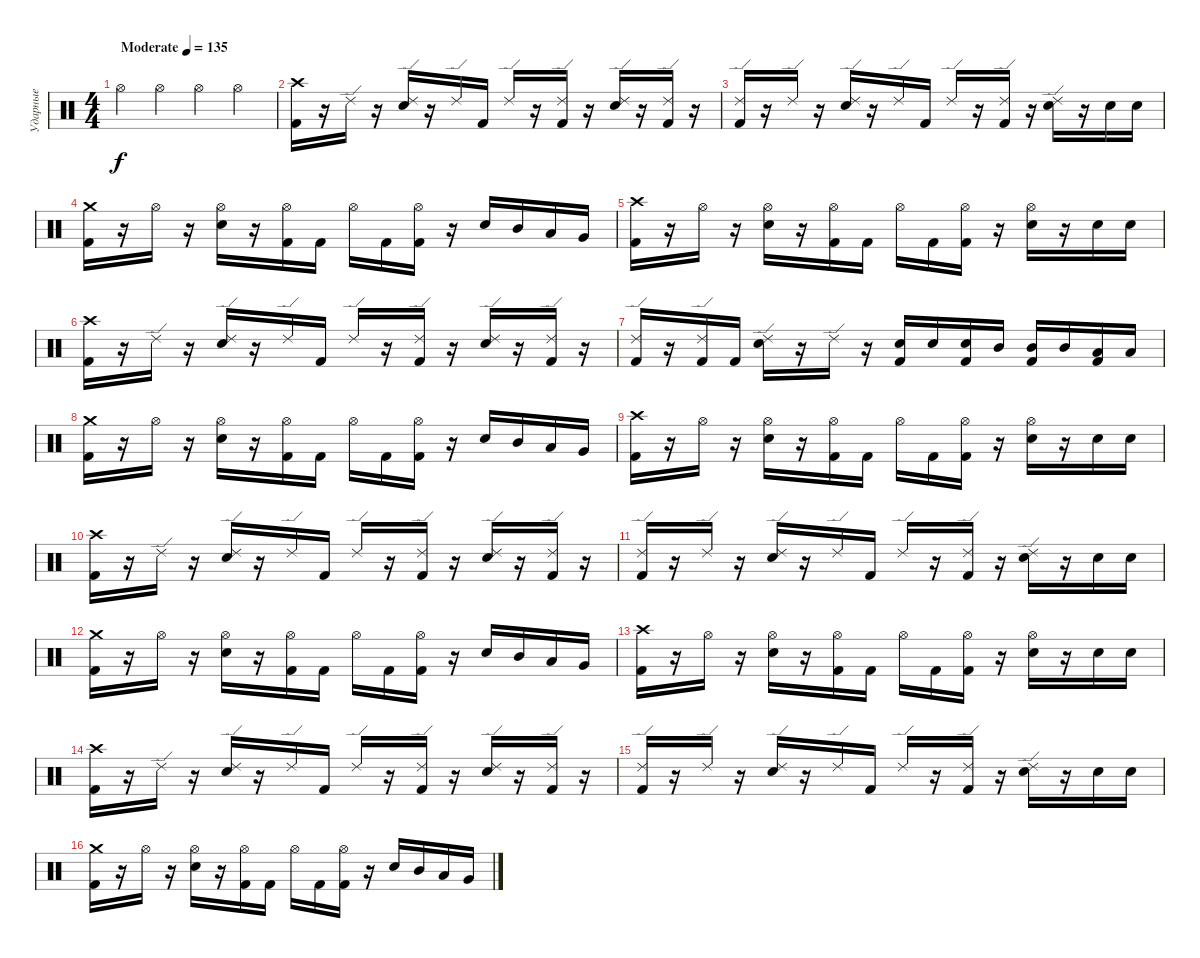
\track ("Ударные" "Ударные") {instrument percussion}
\staff {score}
\articulation defaults
\ts (4 4)
\tempo (135 "Moderate")
\clef neutral
\ks c "Hi-Hat (open)".4{dy f} "Hi-Hat (open)".4 "Hi-Hat (open)".4 "Hi-Hat (open)".4
|
("Crash high (hit)" "Kick (hit) 2").16 r.16 "Ride (edge) 2".16 r.16 ("Ride (edge) 2" "Electric Snare (hit)").16 r.16 "Ride (edge) 2".16 "Kick (hit) 2".16 "Ride (edge) 2".16 r.16 ("Ride (edge) 2" "Kick (hit) 2").16 r.16 ("Ride (edge) 2" "Electric Snare (hit)").16 r.16 ("Ride (edge) 2" "Kick (hit) 2").16 r.16 |
("Ride (edge) 2" "Kick (hit) 2").16 r.16 "Ride (edge) 2".16 r.16 ("Ride (edge) 2" "Electric Snare (hit)").16 r.16 "Ride (edge) 2".16 "Kick (hit) 2".16 "Ride (edge) 2".16 r.16 ("Ride (edge) 2" "Kick (hit) 2").16 r.16 ("Ride (edge) 2" "Electric Snare (hit)").16 r.16 "Electric Snare (hit)".16 "Electric Snare (hit)".16 |
("Crash medium (hit)" "Kick (hit) 2").16 r.16 "Hi-Hat (open)".16 r.16 ("Hi-Hat (open)" "Electric Snare (hit)").16 r.16 ("Hi-Hat (open)" "Kick (hit) 2").16 "Kick (hit) 2".16 "Hi-Hat (open)".16 "Kick (hit) 2".16 ("Hi-Hat (open)" "Kick (hit) 2").16 r.16 "Electric Snare (hit)".16 "Mid Tom (hit)".16 "Low Tom (hit)".16 "Very Low Tom (hit)".16 |
("Crash high (hit)" "Kick (hit) 2").16 r.16 "Hi-Hat (open)".16 r.16 ("Hi-Hat (open)" "Electric Snare (hit)").16 r.16 ("Hi-Hat (open)" "Kick (hit) 2").16 "Kick (hit) 2".16 "Hi-Hat (open)".16 "Kick (hit) 2".16 ("Hi-Hat (open)" "Kick (hit) 2").16 r.16 ("Hi-Hat (open)" "Electric Snare (hit)").16 r.16 "Electric Snare (hit)".16 "Electric Snare (hit)".16 |
("Crash high (hit)" "Kick (hit) 2").16 r.16 "Ride (edge) 2".16 r.16 ("Ride (edge) 2" "Electric Snare (hit)").16 r.16 "Ride (edge) 2".16 "Kick (hit) 2".16 "Ride (edge) 2".16 r.16 ("Ride (edge) 2" "Kick (hit) 2").16 r.16 ("Ride (edge) 2" "Electric Snare (hit)").16 r.16 ("Ride (edge) 2" "Kick (hit) 2").16 r.16 |
("Ride (edge) 2" "Kick (hit) 2").16 r.16 ("Ride (edge) 2" "Kick (hit) 2").16 "Kick (hit) 2".16 ("Ride (edge) 2" "Electric Snare (hit)").16 r.16 "Ride (edge) 2".16 r.16 ("Electric Snare (hit)" "Kick (hit) 2").16 "Electric Snare (hit)".16 ("Electric Snare (hit)" "Kick (hit) 2").16 "Mid Tom (hit)".16 ("Mid Tom (hit)" "Kick (hit) 2").16 "Mid Tom (hit)".16 ("Low Tom (hit)" "Kick (hit) 2").16 "Low Tom (hit)".16 |
("Crash medium (hit)" "Kick (hit) 2").16 r.16 "Hi-Hat (open)".16 r.16 ("Hi-Hat (open)" "Electric Snare (hit)").16 r.16 ("Hi-Hat (open)" "Kick (hit) 2").16 "Kick (hit) 2".16 "Hi-Hat (open)".16 "Kick (hit) 2".16 ("Hi-Hat (open)" "Kick (hit) 2").16 r.16 "Electric Snare (hit)".16 "Mid Tom (hit)".16 "Low Tom (hit)".16 "Very Low Tom (hit)".16 |
("Crash high (hit)" "Kick (hit) 2").16 r.16 "Hi-Hat (open)".16 r.16 ("Hi-Hat (open)" "Electric Snare (hit)").16 r.16 ("Hi-Hat (open)" "Kick (hit) 2").16 "Kick (hit) 2".16 "Hi-Hat (open)".16 "Kick (hit) 2".16 ("Hi-Hat (open)" "Kick (hit) 2").16 r.16 ("Hi-Hat (open)" "Electric Snare (hit)").16 r.16 "Electric Snare (hit)".16 "Electric Snare (hit)".16 |
("Crash high (hit)" "Kick (hit) 2").16 r.16 "Ride (edge) 2".16 r.16 ("Ride (edge) 2" "Electric Snare (hit)").16 r.16 "Ride (edge) 2".16 "Kick (hit) 2".16 "Ride (edge) 2".16 r.16 ("Ride (edge) 2" "Kick (hit) 2").16 r.16 ("Ride (edge) 2" "Electric Snare (hit)").16 r.16 ("Ride (edge) 2" "Kick (hit) 2").16 r.16 |
("Ride (edge) 2" "Kick (hit) 2").16 r.16 "Ride (edge) 2".16 r.16 ("Ride (edge) 2" "Electric Snare (hit)").16 r.16 "Ride (edge) 2".16 "Kick (hit) 2".16 "Ride (edge) 2".16 r.16 ("Ride (edge) 2" "Kick (hit) 2").16 r.16 ("Ride (edge) 2" "Electric Snare (hit)").16 r.16 "Electric Snare (hit)".16 "Electric Snare (hit)".16 |
("Crash medium (hit)" "Kick (hit) 2").16 r.16 "Hi-Hat (open)".16 r.16 ("Hi-Hat (open)" "Electric Snare (hit)").16 r.16 ("Hi-Hat (open)" "Kick (hit) 2").16 "Kick (hit) 2".16 "Hi-Hat (open)".16 "Kick (hit) 2".16 ("Hi-Hat (open)" "Kick (hit) 2").16 r.16 "Electric Snare (hit)".16 "Mid Tom (hit)".16 "Low Tom (hit)".16 "Very Low Tom (hit)".16 |
("Crash high (hit)" "Kick (hit) 2").16 r.16 "Hi-Hat (open)".16 r.16 ("Hi-Hat (open)" "Electric Snare (hit)").16 r.16 ("Hi-Hat (open)" "Kick (hit) 2").16 "Kick (hit) 2".16 "Hi-Hat (open)".16 "Kick (hit) 2".16 ("Hi-Hat (open)" "Kick (hit) 2").16 r.16 ("Hi-Hat (open)" "Electric Snare (hit)").16 r.16 "Electric Snare (hit)".16 "Electric Snare (hit)".16 |
("Crash high (hit)" "Kick (hit) 2").16 r.16 "Ride (edge) 2".16 r.16 ("Ride (edge) 2" "Electric Snare (hit)").16 r.16 "Ride (edge) 2".16 "Kick (hit) 2".16 "Ride (edge) 2".16 r.16 ("Ride (edge) 2" "Kick (hit) 2").16 r.16 ("Ride (edge) 2" "Electric Snare (hit)").16 r.16 ("Ride (edge) 2" "Kick (hit) 2").16 r.16 |
("Ride (edge) 2" "Kick (hit) 2").16 r.16 "Ride (edge) 2".16 r.16 ("Ride (edge) 2" "Electric Snare (hit)").16 r.16 "Ride (edge) 2".16 "Kick (hit) 2".16 "Ride (edge) 2".16 r.16 ("Ride (edge) 2" "Kick (hit) 2").16 r.16 ("Ride (edge) 2" "Electric Snare (hit)").16 r.16 "Electric Snare (hit)".16 "Electric Snare (hit)".16 |
("Crash medium (hit)" "Kick (hit) 2").16 r.16 "Hi-Hat (open)".16 r.16 ("Hi-Hat (open)" "Electric Snare (hit)").16 r.16 ("Hi-Hat (open)" "Kick (hit) 2").16 "Kick (hit) 2".16 "Hi-Hat (open)".16 "Kick (hit) 2".16 ("Hi-Hat (open)" "Kick (hit) 2").16 r.16 "Electric Snare (hit)".16 "Mid Tom (hit)".16 "Low Tom (hit)".16 "Very Low Tom (hit)".16
